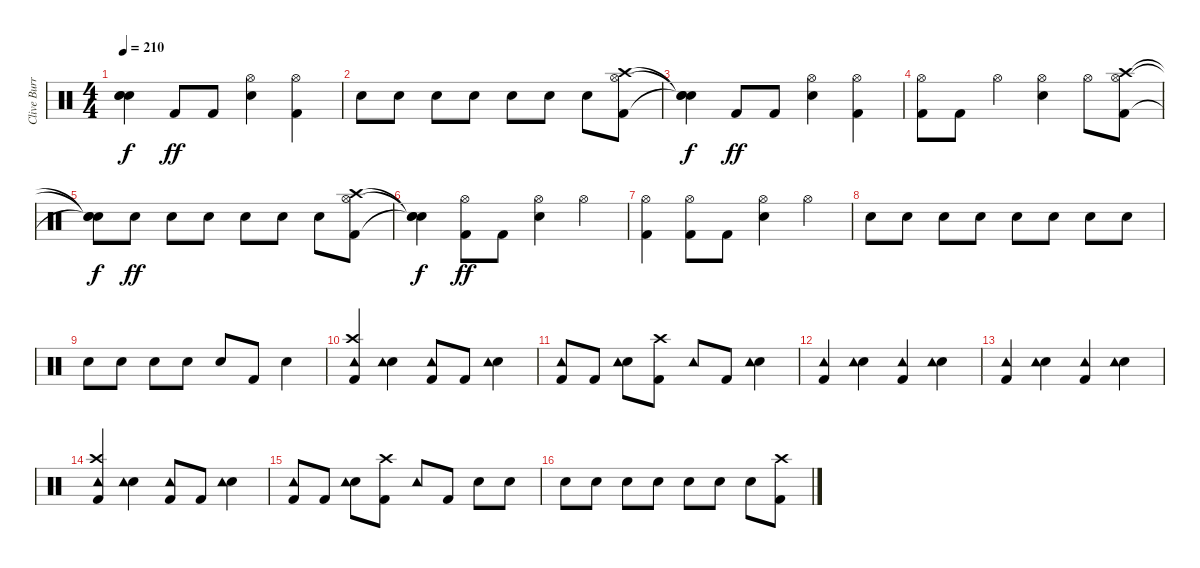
\track ("Clive Burr" "Clive Burr") {instrument percussion}
\staff {score}
\articulation defaults
\ts (4 4)
\tempo 210
\clef neutral
\ks c
("Snare (hit)"{t} "Snare (hit)"{t} "Snare (hit)"{t}).4{dy f} "Kick (hit) 2".8{dy ff} "Kick (hit) 2".8 ("Snare (hit) 2" "Hi-Hat (open)").4 ("Kick (hit) 2" "Hi-Hat (open)").4 |
"Snare (hit) 2".8 "Snare (hit) 2".8 "Snare (hit) 2".8 "Snare (hit) 2".8 "Snare (hit) 2".8 "Snare (hit) 2".8 "Snare (hit) 2".8 ("Kick (hit) 2" "Hi-Hat (open)" "Crash high (hit)").8 |
("Snare (hit)"{t} "Snare (hit)"{t} "Snare (hit)"{t}).4{dy f} "Kick (hit) 2".8{dy ff} "Kick (hit) 2".8 ("Snare (hit) 2" "Hi-Hat (open)").4 ("Kick (hit) 2" "Hi-Hat (open)").4 |
("Kick (hit) 2" "Hi-Hat (open)").8 "Kick (hit) 2".8 "Hi-Hat (open)".4 ("Snare (hit) 2" "Hi-Hat (open)").4 "Hi-Hat (open)".8 ("Kick (hit) 2" "Hi-Hat (open)" "Crash high (hit)").8 |
("Snare (hit)"{t} "Snare (hit)"{t} "Snare (hit)"{t}).8{dy f} "Snare (hit) 2".8{dy ff} "Snare (hit) 2".8 "Snare (hit) 2".8 "Snare (hit) 2".8 "Snare (hit) 2".8 "Snare (hit) 2".8 ("Kick (hit) 2" "Hi-Hat (open)" "Crash high (hit)").8 |
("Snare (hit)"{t} "Snare (hit)"{t} "Snare (hit)"{t}).4{dy f} ("Kick (hit) 2" "Hi-Hat (open)").8{dy ff} "Kick (hit) 2".8 ("Snare (hit) 2" "Hi-Hat (open)").4 "Hi-Hat (open)".4 |
("Kick (hit) 2" "Hi-Hat (open)").4 ("Kick (hit) 2" "Hi-Hat (open)").8 "Kick (hit) 2".8 ("Snare (hit) 2" "Hi-Hat (open)").4 "Hi-Hat (open)".4 |
"Snare (hit) 2".8 "Snare (hit) 2".8 "Snare (hit) 2".8 "Snare (hit) 2".8 "Snare (hit) 2".8 "Snare (hit) 2".8 "Snare (hit) 2".8 "Snare (hit) 2".8 |
"Snare (hit) 2".8 "Snare (hit) 2".8 "Snare (hit) 2".8 "Snare (hit) 2".8 "Snare (hit) 2".8 "Kick (hit) 2".8 "Snare (hit) 2".4 |
("Kick (hit) 2" "Crash high (hit)" "Tambourine (hit)").4 ("Snare (hit) 2" "Tambourine (hit)").4 ("Kick (hit) 2" "Tambourine (hit)").8 "Kick (hit) 2".8 ("Snare (hit) 2" "Tambourine (hit)").4 |
("Kick (hit) 2" "Tambourine (hit)").8 "Kick (hit) 2".8 ("Snare (hit) 2" "Tambourine (hit)").8 ("Kick (hit) 2" "Crash high (hit)").8 "Tambourine (hit)".8 "Kick (hit) 2".8 ("Snare (hit) 2" "Tambourine (hit)").4 |
("Kick (hit) 2" "Tambourine (hit)").4 ("Snare (hit) 2" "Tambourine (hit)").4 ("Kick (hit) 2" "Tambourine (hit)").4 ("Snare (hit) 2" "Tambourine (hit)").4 |
("Kick (hit) 2" "Tambourine (hit)").4 ("Snare (hit) 2" "Tambourine (hit)").4 ("Kick (hit) 2" "Tambourine (hit)").4 ("Snare (hit) 2" "Tambourine (hit)").4 |
("Kick (hit) 2" "Crash high (hit)" "Tambourine (hit)").4 ("Snare (hit) 2" "Tambourine (hit)").4 ("Kick (hit) 2" "Tambourine (hit)").8 "Kick (hit) 2".8 ("Snare (hit) 2" "Tambourine (hit)").4 |
("Kick (hit) 2" "Tambourine (hit)").8 "Kick (hit) 2".8 ("Snare (hit) 2" "Tambourine (hit)").8 ("Kick (hit) 2" "Crash high (hit)").8 "Tambourine (hit)".8 "Kick (hit) 2".8 "Snare (hit) 2".8 "Snare (hit) 2".8 |
"Snare (hit) 2".8 "Snare (hit) 2".8 "Snare (hit) 2".8 "Snare (hit) 2".8 "Snare (hit) 2".8 "Snare (hit) 2".8 "Snare (hit) 2".8 ("Kick (hit) 2" "Crash high (hit)").8
